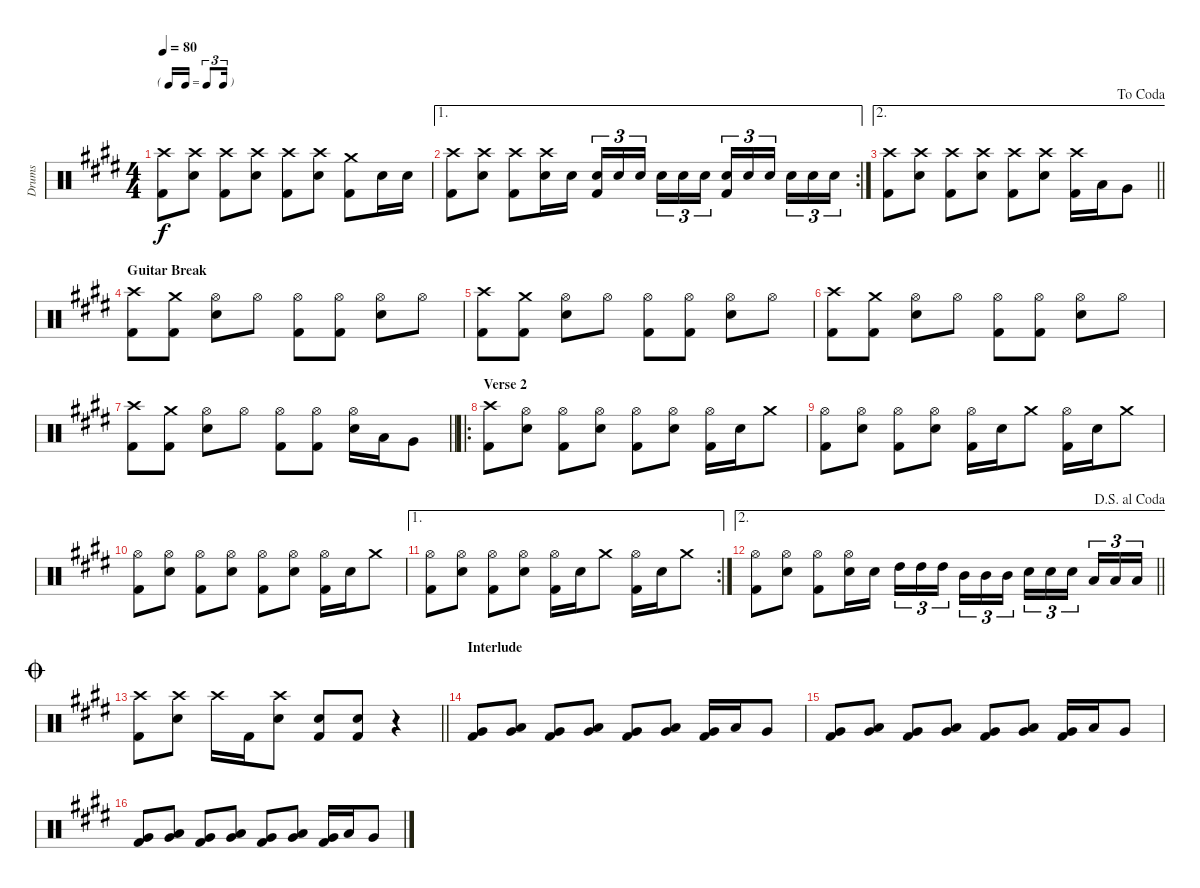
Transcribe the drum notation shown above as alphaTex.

\track ("Drums" "Drums") {instrument percussion}
\staff {score}
\articulation defaults
\ts (4 4)
\tf triplet16th
\tempo 80
\clef neutral
\ks e
("Kick (hit) 2" "Crash high (hit)").8{dy f} ("Crash high (hit)" "Electric Snare (hit)").8 ("Kick (hit) 2" "Crash high (hit)").8 ("Crash high (hit)" "Electric Snare (hit)").8 ("Kick (hit) 2" "Crash high (hit)").8 ("Crash high (hit)" "Electric Snare (hit)").8 ("Kick (hit) 2" "Crash medium (hit)").8 "Electric Snare (hit)".16 "Electric Snare (hit)".16 |
\ae 1
\rc 2
("Kick (hit) 2" "Crash high (hit)").8 ("Crash high (hit)" "Electric Snare (hit)").8 ("Kick (hit) 2" "Crash high (hit)").8 ("Crash high (hit)" "Electric Snare (hit)").16 "Electric Snare (hit)".16 ("Kick (hit) 2" "Electric Snare (hit)").16{tu (3 2)} "Electric Snare (hit)".16{tu (3 2)} "Electric Snare (hit)".16{tu (3 2) beam splitsecondary} "Electric Snare (hit)".16{tu (3 2)} "Electric Snare (hit)".16{tu (3 2)} "Electric Snare (hit)".16{tu (3 2)} ("Kick (hit) 2" "Electric Snare (hit)").16{tu (3 2)} "Electric Snare (hit)".16{tu (3 2)} "Electric Snare (hit)".16{tu (3 2) beam splitsecondary} "Electric Snare (hit)".16{tu (3 2)} "Electric Snare (hit)".16{tu (3 2)} "Electric Snare (hit)".16{tu (3 2)} |
\ae 2
\jump dacoda
\barLineRight lightlight
("Kick (hit) 2" "Crash high (hit)").8 ("Crash high (hit)" "Electric Snare (hit)").8 ("Kick (hit) 2" "Crash high (hit)").8 ("Crash high (hit)" "Electric Snare (hit)").8 ("Kick (hit) 2" "Crash high (hit)").8 ("Crash high (hit)" "Electric Snare (hit)").8 ("Kick (hit) 2" "Crash high (hit)").16 "Low Tom (hit)".16 "Very Low Tom (hit)".8 |
\section ("" "Guitar Break")
("Kick (hit) 2" "Crash high (hit)").8 ("Kick (hit) 2" "Crash medium (hit)").8 ("Electric Snare (hit)" "Hi-Hat (open)").8 "Hi-Hat (open)".8 ("Kick (hit) 2" "Hi-Hat (open)").8 ("Kick (hit) 2" "Hi-Hat (open)").8 ("Electric Snare (hit)" "Hi-Hat (open)").8 "Hi-Hat (open)".8 |
("Kick (hit) 2" "Crash high (hit)").8 ("Kick (hit) 2" "Crash medium (hit)").8 ("Electric Snare (hit)" "Hi-Hat (open)").8 "Hi-Hat (open)".8 ("Kick (hit) 2" "Hi-Hat (open)").8 ("Kick (hit) 2" "Hi-Hat (open)").8 ("Electric Snare (hit)" "Hi-Hat (open)").8 "Hi-Hat (open)".8 |
("Kick (hit) 2" "Crash high (hit)").8 ("Kick (hit) 2" "Crash medium (hit)").8 ("Electric Snare (hit)" "Hi-Hat (open)").8 "Hi-Hat (open)".8 ("Kick (hit) 2" "Hi-Hat (open)").8 ("Kick (hit) 2" "Hi-Hat (open)").8 ("Electric Snare (hit)" "Hi-Hat (open)").8 "Hi-Hat (open)".8 |
\barLineRight lightlight
("Kick (hit) 2" "Crash high (hit)").8 ("Kick (hit) 2" "Crash medium (hit)").8 ("Electric Snare (hit)" "Hi-Hat (open)").8 "Hi-Hat (open)".8 ("Kick (hit) 2" "Hi-Hat (open)").8 ("Kick (hit) 2" "Hi-Hat (open)").8 ("Electric Snare (hit)" "Hi-Hat (open)").16 "Low Tom (hit)".16 "Very Low Tom (hit)".8 |
\ro
\section ("" "Verse 2")
("Kick (hit) 2" "Crash high (hit)").8 ("Electric Snare (hit)" "Hi-Hat (open)").8 ("Kick (hit) 2" "Hi-Hat (open)").8 ("Electric Snare (hit)" "Hi-Hat (open)").8 ("Kick (hit) 2" "Hi-Hat (open)").8 ("Electric Snare (hit)" "Hi-Hat (open)").8 ("Kick (hit) 2" "Hi-Hat (open)").16 "Electric Snare (hit)".16 "Crash medium (hit)".8 |
("Kick (hit) 2" "Hi-Hat (open)").8 ("Electric Snare (hit)" "Hi-Hat (open)").8 ("Kick (hit) 2" "Hi-Hat (open)").8 ("Electric Snare (hit)" "Hi-Hat (open)").8 ("Kick (hit) 2" "Hi-Hat (open)").16 "Electric Snare (hit)".16 "Crash medium (hit)".8 ("Kick (hit) 2" "Hi-Hat (open)").16 "Electric Snare (hit)".16 "Crash medium (hit)".8 |
("Kick (hit) 2" "Hi-Hat (open)").8 ("Electric Snare (hit)" "Hi-Hat (open)").8 ("Kick (hit) 2" "Hi-Hat (open)").8 ("Electric Snare (hit)" "Hi-Hat (open)").8 ("Kick (hit) 2" "Hi-Hat (open)").8 ("Electric Snare (hit)" "Hi-Hat (open)").8 ("Kick (hit) 2" "Hi-Hat (open)").16 "Electric Snare (hit)".16 "Crash medium (hit)".8 |
\ae 1
\rc 2
("Kick (hit) 2" "Hi-Hat (open)").8 ("Electric Snare (hit)" "Hi-Hat (open)").8 ("Kick (hit) 2" "Hi-Hat (open)").8 ("Electric Snare (hit)" "Hi-Hat (open)").8 ("Kick (hit) 2" "Hi-Hat (open)").16 "Electric Snare (hit)".16 "Crash medium (hit)".8 ("Kick (hit) 2" "Hi-Hat (open)").16 "Electric Snare (hit)".16 "Crash medium (hit)".8 |
\ae 2
\jump dalsegnoalcoda
\barLineRight lightlight
("Kick (hit) 2" "Hi-Hat (open)").8 ("Electric Snare (hit)" "Hi-Hat (open)").8 ("Kick (hit) 2" "Hi-Hat (open)").8 ("Electric Snare (hit)" "Hi-Hat (open)").16 "Electric Snare (hit)".16 "High Tom (hit)".16{tu (3 2)} "High Tom (hit)".16{tu (3 2)} "High Tom (hit)".16{tu (3 2) beam splitsecondary} "Mid Tom (hit)".16{tu (3 2)} "Mid Tom (hit)".16{tu (3 2)} "Mid Tom (hit)".16{tu (3 2)} "Electric Snare (hit)".16{tu (3 2)} "Electric Snare (hit)".16{tu (3 2)} "Electric Snare (hit)".16{tu (3 2) beam splitsecondary} "Low Tom (hit)".16{tu (3 2)} "Low Tom (hit)".16{tu (3 2)} "Low Tom (hit)".16{tu (3 2)} |
\jump coda
\barLineRight lightlight
("Kick (hit) 2" "Crash high (hit)").8 ("Crash high (hit)" "Electric Snare (hit)").8 "Crash high (hit)".16 "Kick (hit) 2".16 ("Crash high (hit)" "Electric Snare (hit)").8 ("Kick (hit) 2" "Electric Snare (hit)").8 ("Kick (hit) 2" "Electric Snare (hit)").8 r.4 |
\section ("" "Interlude")
("Kick (hit) 2" "Very Low Tom (hit)").8 ("Low Tom (hit)" "Very Low Tom (hit)").8 ("Kick (hit) 2" "Very Low Tom (hit)").8 ("Low Tom (hit)" "Very Low Tom (hit)").8 ("Kick (hit) 2" "Very Low Tom (hit)").8 ("Low Tom (hit)" "Very Low Tom (hit)").8 ("Kick (hit) 2" "Very Low Tom (hit)").16 "Low Tom (hit)".16 "Very Low Tom (hit)".8 |
("Kick (hit) 2" "Very Low Tom (hit)").8 ("Low Tom (hit)" "Very Low Tom (hit)").8 ("Kick (hit) 2" "Very Low Tom (hit)").8 ("Low Tom (hit)" "Very Low Tom (hit)").8 ("Kick (hit) 2" "Very Low Tom (hit)").8 ("Low Tom (hit)" "Very Low Tom (hit)").8 ("Kick (hit) 2" "Very Low Tom (hit)").16 "Low Tom (hit)".16 "Very Low Tom (hit)".8 |
("Kick (hit) 2" "Very Low Tom (hit)").8 ("Low Tom (hit)" "Very Low Tom (hit)").8 ("Kick (hit) 2" "Very Low Tom (hit)").8 ("Low Tom (hit)" "Very Low Tom (hit)").8 ("Kick (hit) 2" "Very Low Tom (hit)").8 ("Low Tom (hit)" "Very Low Tom (hit)").8 ("Kick (hit) 2" "Very Low Tom (hit)").16 "Low Tom (hit)".16 "Very Low Tom (hit)".8
